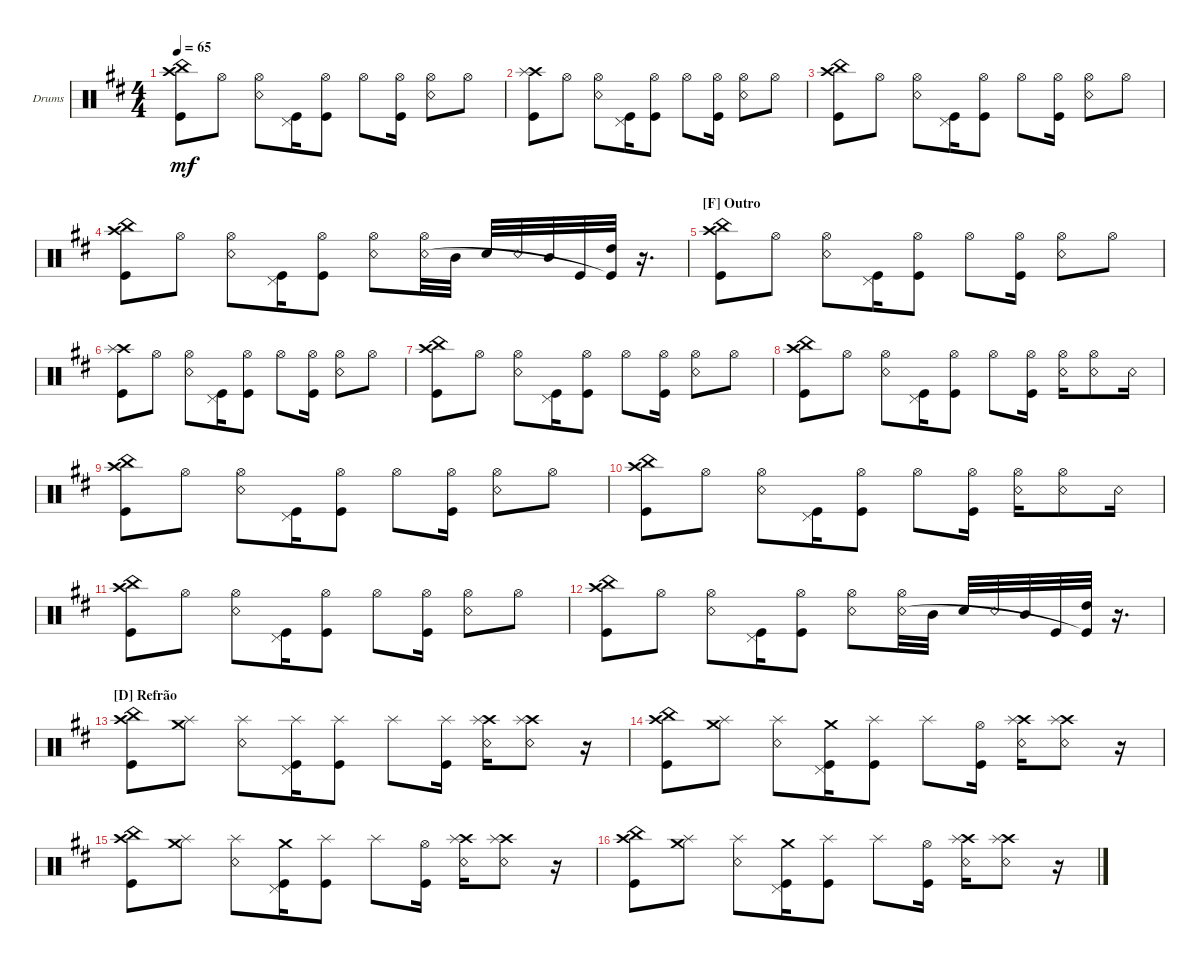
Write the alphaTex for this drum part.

\defaultSystemsLayout 4
\bracketExtendMode groupsimilarinstruments
\firstSystemTrackNameOrientation horizontal
\otherSystemsTrackNameOrientation horizontal
\track ("Bateria" "Drums") {multiBarRest instrument percussion}
\staff {score}
\articulation defaults
\ts (4 4)
\tempo 65
\clef neutral
\ks d
("Kick (hit)" "Crash high (hit)" "China (hit)").8{dy mf} "Hi-Hat (open)".8 ("Hi-Hat (open)" "Snare (rim shot)").8 ("Kick (hit)" "Pedal Hi-Hat (hit)").16 ("Hi-Hat (open)" "Kick (hit)").8 "Hi-Hat (open)".8 ("Hi-Hat (open)" "Kick (hit)").16 ("Hi-Hat (open)" "Snare (rim shot)").8 "Hi-Hat (open)".8 |
("Kick (hit)" "Crash high (hit)" "Splash (hit)").8 "Hi-Hat (open)".8 ("Hi-Hat (open)" "Snare (rim shot)").8 ("Kick (hit)" "Pedal Hi-Hat (hit)").16 ("Hi-Hat (open)" "Kick (hit)").8 "Hi-Hat (open)".8 ("Hi-Hat (open)" "Kick (hit)").16 ("Hi-Hat (open)" "Snare (rim shot)").8 "Hi-Hat (open)".8 |
("Kick (hit)" "Crash high (hit)" "China (hit)").8 "Hi-Hat (open)".8 ("Hi-Hat (open)" "Snare (rim shot)").8 ("Kick (hit)" "Pedal Hi-Hat (hit)").16 ("Hi-Hat (open)" "Kick (hit)").8 "Hi-Hat (open)".8 ("Hi-Hat (open)" "Kick (hit)").16 ("Hi-Hat (open)" "Snare (rim shot)").8 "Hi-Hat (open)".8 |
("Kick (hit)" "Crash high (hit)" "China (hit)").8 "Hi-Hat (open)".8 ("Hi-Hat (open)" "Snare (rim shot)").8 ("Kick (hit)" "Pedal Hi-Hat (hit)").16 ("Hi-Hat (open)" "Kick (hit)").8 ("Hi-Hat (open)" "Snare (rim shot)").8 ("Hi-Hat (open)" "Snare (rim shot)").32 "Mid Tom (hit)".32 "Snare (hit) 2".32 "Snare (rim shot)".32 "Mid Tom (hit)".32 "Kick (hit)".32 ("High Tom (hit)" "Kick (hit)"{t}).32 r.16{d} |
\section ("F" "Outro")
("Kick (hit)" "Crash high (hit)" "China (hit)").8 "Hi-Hat (open)".8 ("Hi-Hat (open)" "Snare (rim shot)").8 ("Kick (hit)" "Pedal Hi-Hat (hit)").16 ("Hi-Hat (open)" "Kick (hit)").8 "Hi-Hat (open)".8 ("Hi-Hat (open)" "Kick (hit)").16 ("Hi-Hat (open)" "Snare (rim shot)").8 "Hi-Hat (open)".8 |
("Kick (hit)" "Crash high (hit)" "Splash (hit)").8 "Hi-Hat (open)".8 ("Hi-Hat (open)" "Snare (rim shot)").8 ("Kick (hit)" "Pedal Hi-Hat (hit)").16 ("Hi-Hat (open)" "Kick (hit)").8 "Hi-Hat (open)".8 ("Hi-Hat (open)" "Kick (hit)").16 ("Hi-Hat (open)" "Snare (rim shot)").8 "Hi-Hat (open)".8 |
("Kick (hit)" "Crash high (hit)" "China (hit)").8 "Hi-Hat (open)".8 ("Hi-Hat (open)" "Snare (rim shot)").8 ("Kick (hit)" "Pedal Hi-Hat (hit)").16 ("Hi-Hat (open)" "Kick (hit)").8 "Hi-Hat (open)".8 ("Hi-Hat (open)" "Kick (hit)").16 ("Hi-Hat (open)" "Snare (rim shot)").8 "Hi-Hat (open)".8 |
("Kick (hit)" "Crash high (hit)" "China (hit)").8 "Hi-Hat (open)".8 ("Hi-Hat (open)" "Snare (rim shot)").8 ("Kick (hit)" "Pedal Hi-Hat (hit)").16 ("Hi-Hat (open)" "Kick (hit)").8 "Hi-Hat (open)".8 ("Hi-Hat (open)" "Kick (hit)").16 ("Hi-Hat (open)" "Snare (rim shot)").16 ("Hi-Hat (open)" "Snare (rim shot)").8 "Snare (rim shot)".16 |
("Kick (hit)" "Crash high (hit)" "China (hit)").8 "Hi-Hat (open)".8 ("Hi-Hat (open)" "Snare (rim shot)").8 ("Kick (hit)" "Pedal Hi-Hat (hit)").16 ("Hi-Hat (open)" "Kick (hit)").8 "Hi-Hat (open)".8 ("Hi-Hat (open)" "Kick (hit)").16 ("Hi-Hat (open)" "Snare (rim shot)").8 "Hi-Hat (open)".8 |
("Kick (hit)" "Crash high (hit)" "China (hit)").8 "Hi-Hat (open)".8 ("Hi-Hat (open)" "Snare (rim shot)").8 ("Kick (hit)" "Pedal Hi-Hat (hit)").16 ("Hi-Hat (open)" "Kick (hit)").8 "Hi-Hat (open)".8 ("Hi-Hat (open)" "Kick (hit)").16 ("Hi-Hat (open)" "Snare (rim shot)").16 ("Hi-Hat (open)" "Snare (rim shot)").8 "Snare (rim shot)".16 |
("Kick (hit)" "Crash high (hit)" "China (hit)").8 "Hi-Hat (open)".8 ("Hi-Hat (open)" "Snare (rim shot)").8 ("Kick (hit)" "Pedal Hi-Hat (hit)").16 ("Hi-Hat (open)" "Kick (hit)").8 "Hi-Hat (open)".8 ("Hi-Hat (open)" "Kick (hit)").16 ("Hi-Hat (open)" "Snare (rim shot)").8 "Hi-Hat (open)".8 |
("Kick (hit)" "Crash high (hit)" "China (hit)").8 "Hi-Hat (open)".8 ("Hi-Hat (open)" "Snare (rim shot)").8 ("Kick (hit)" "Pedal Hi-Hat (hit)").16 ("Hi-Hat (open)" "Kick (hit)").8 ("Hi-Hat (open)" "Snare (rim shot)").8 ("Hi-Hat (open)" "Snare (rim shot)").32 "Mid Tom (hit)".32 "Snare (hit) 2".32 "Snare (rim shot)".32 "Mid Tom (hit)".32 "Kick (hit)".32 ("High Tom (hit)" "Kick (hit)"{t}).32 r.16{d} |
\section ("D" "Refrão")
("Kick (hit)" "Crash high (hit)" "China (hit)").8 ("Splash (hit)" "Crash medium (hit)").8 ("Snare (rim shot)" "Splash (hit)").8 ("Kick (hit)" "Pedal Hi-Hat (hit)" "Splash (hit)").16 ("Kick (hit)" "Splash (hit)").8 "Splash (hit)".8 ("Kick (hit)" "Splash (hit)").16 ("Snare (rim shot)" "Crash high (hit)" "Splash (hit)").16 ("Crash high (hit)" "Splash (hit)" "Snare (rim shot)").8 r.16 |
("Kick (hit)" "Crash high (hit)" "China (hit)").8 ("Splash (hit)" "Crash medium (hit)").8 ("Snare (rim shot)" "Splash (hit)").8 ("Kick (hit)" "Pedal Hi-Hat (hit)" "Crash medium (hit)").16 ("Kick (hit)" "Splash (hit)").8 "Splash (hit)".8 ("Hi-Hat (open)" "Kick (hit)").16 ("Snare (rim shot)" "Crash high (hit)" "Splash (hit)").16 ("Crash high (hit)" "Splash (hit)" "Snare (rim shot)").8 r.16 |
("Kick (hit)" "Crash high (hit)" "China (hit)").8 ("Splash (hit)" "Crash medium (hit)").8 ("Snare (rim shot)" "Splash (hit)").8 ("Kick (hit)" "Pedal Hi-Hat (hit)" "Crash medium (hit)").16 ("Kick (hit)" "Splash (hit)").8 "Splash (hit)".8 ("Hi-Hat (open)" "Kick (hit)").16 ("Snare (rim shot)" "Crash high (hit)" "Splash (hit)").16 ("Crash high (hit)" "Splash (hit)" "Snare (rim shot)").8 r.16 |
("Kick (hit)" "Crash high (hit)" "China (hit)").8 ("Splash (hit)" "Crash medium (hit)").8 ("Snare (rim shot)" "Splash (hit)").8 ("Kick (hit)" "Pedal Hi-Hat (hit)" "Crash medium (hit)").16 ("Kick (hit)" "Splash (hit)").8 "Splash (hit)".8 ("Hi-Hat (open)" "Kick (hit)").16 ("Snare (rim shot)" "Crash high (hit)" "Splash (hit)").16 ("Crash high (hit)" "Splash (hit)" "Snare (rim shot)").8 r.16
